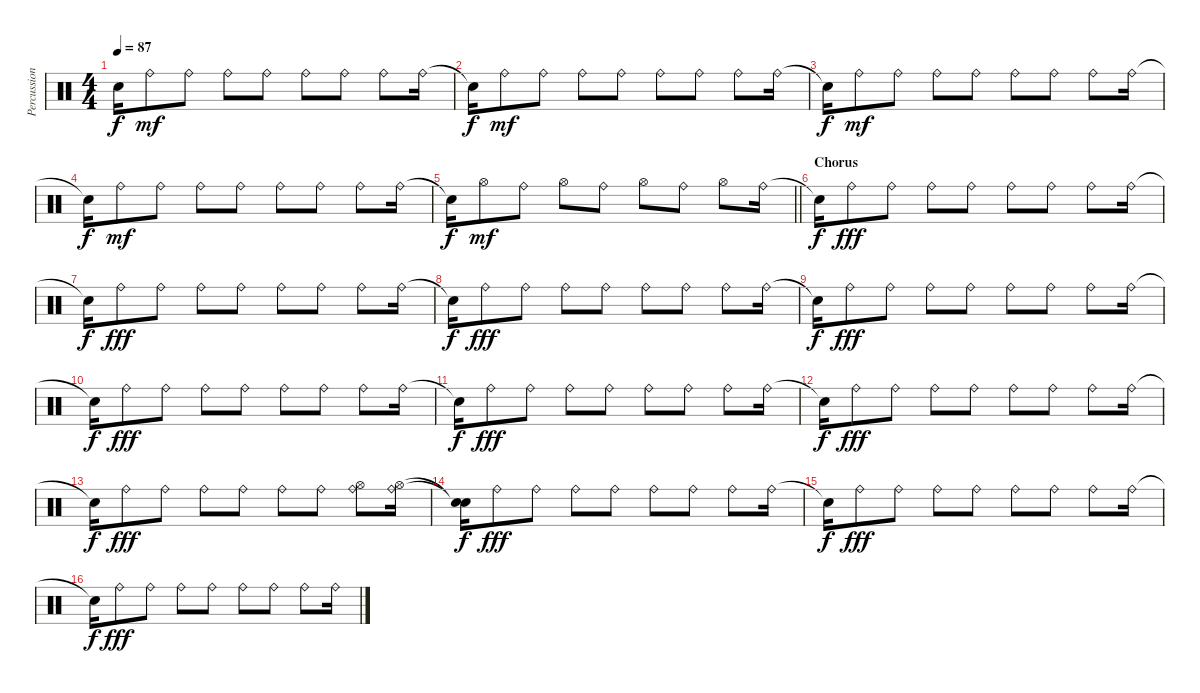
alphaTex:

\track ("Percussion" "Percussion") {instrument percussion}
\staff {score}
\articulation defaults
\ts (4 4)
\tempo 87
\clef neutral
\ks c "Snare (hit)"{t}.16{dy f} "Ride (bell)".8{dy mf} "Ride (bell)".8 "Ride (bell)".8 "Ride (bell)".8 "Ride (bell)".8 "Ride (bell)".8 "Ride (bell)".8 "Ride (bell)".16
|
"Snare (hit)"{t}.16{dy f} "Ride (bell)".8{dy mf} "Ride (bell)".8 "Ride (bell)".8 "Ride (bell)".8 "Ride (bell)".8 "Ride (bell)".8 "Ride (bell)".8 "Ride (bell)".16 |
"Snare (hit)"{t}.16{dy f} "Ride (bell)".8{dy mf} "Ride (bell)".8 "Ride (bell)".8 "Ride (bell)".8 "Ride (bell)".8 "Ride (bell)".8 "Ride (bell)".8 "Ride (bell)".16 |
"Snare (hit)"{t}.16{dy f} "Ride (bell)".8{dy mf} "Ride (bell)".8 "Ride (bell)".8 "Ride (bell)".8 "Ride (bell)".8 "Ride (bell)".8 "Ride (bell)".8 "Ride (bell)".16 |
\barLineRight lightlight "Snare (hit)"{t}.16{dy f} "Hi-Hat (open)".8{dy mf} "Ride (bell)".8 "Hi-Hat (open)".8 "Ride (bell)".8 "Hi-Hat (open)".8 "Ride (bell)".8 "Hi-Hat (open)".8 "Ride (bell)".16
|
\section ("" "Chorus")
"Snare (hit)"{t}.16{dy f} "Ride (bell)".8{dy fff} "Ride (bell)".8 "Ride (bell)".8 "Ride (bell)".8 "Ride (bell)".8 "Ride (bell)".8 "Ride (bell)".8 "Ride (bell)".16 |
"Snare (hit)"{t}.16{dy f} "Ride (bell)".8{dy fff} "Ride (bell)".8 "Ride (bell)".8 "Ride (bell)".8 "Ride (bell)".8 "Ride (bell)".8 "Ride (bell)".8 "Ride (bell)".16 |
"Snare (hit)"{t}.16{dy f} "Ride (bell)".8{dy fff} "Ride (bell)".8 "Ride (bell)".8 "Ride (bell)".8 "Ride (bell)".8 "Ride (bell)".8 "Ride (bell)".8 "Ride (bell)".16 |
"Snare (hit)"{t}.16{dy f} "Ride (bell)".8{dy fff} "Ride (bell)".8 "Ride (bell)".8 "Ride (bell)".8 "Ride (bell)".8 "Ride (bell)".8 "Ride (bell)".8 "Ride (bell)".16 |
"Snare (hit)"{t}.16{dy f} "Ride (bell)".8{dy fff} "Ride (bell)".8 "Ride (bell)".8 "Ride (bell)".8 "Ride (bell)".8 "Ride (bell)".8 "Ride (bell)".8 "Ride (bell)".16 |
"Snare (hit)"{t}.16{dy f} "Ride (bell)".8{dy fff} "Ride (bell)".8 "Ride (bell)".8 "Ride (bell)".8 "Ride (bell)".8 "Ride (bell)".8 "Ride (bell)".8 "Ride (bell)".16 |
"Snare (hit)"{t}.16{dy f} "Ride (bell)".8{dy fff} "Ride (bell)".8 "Ride (bell)".8 "Ride (bell)".8 "Ride (bell)".8 "Ride (bell)".8 "Ride (bell)".8 "Ride (bell)".16 |
"Snare (hit)"{t}.16{dy f} "Ride (bell)".8{dy fff} "Ride (bell)".8 "Ride (bell)".8 "Ride (bell)".8 "Ride (bell)".8 "Ride (bell)".8 ("Hi-Hat (open)" "Ride (bell)").8 ("Hi-Hat (open)" "Ride (bell)").16 |
("Snare (hit)"{t} "Snare (hit)"{t}).16{dy f} "Ride (bell)".8{dy fff} "Ride (bell)".8 "Ride (bell)".8 "Ride (bell)".8 "Ride (bell)".8 "Ride (bell)".8 "Ride (bell)".8 "Ride (bell)".16 |
"Snare (hit)"{t}.16{dy f} "Ride (bell)".8{dy fff} "Ride (bell)".8 "Ride (bell)".8 "Ride (bell)".8 "Ride (bell)".8 "Ride (bell)".8 "Ride (bell)".8 "Ride (bell)".16 |
"Snare (hit)"{t}.16{dy f} "Ride (bell)".8{dy fff} "Ride (bell)".8 "Ride (bell)".8 "Ride (bell)".8 "Ride (bell)".8 "Ride (bell)".8 "Ride (bell)".8 "Ride (bell)".16
